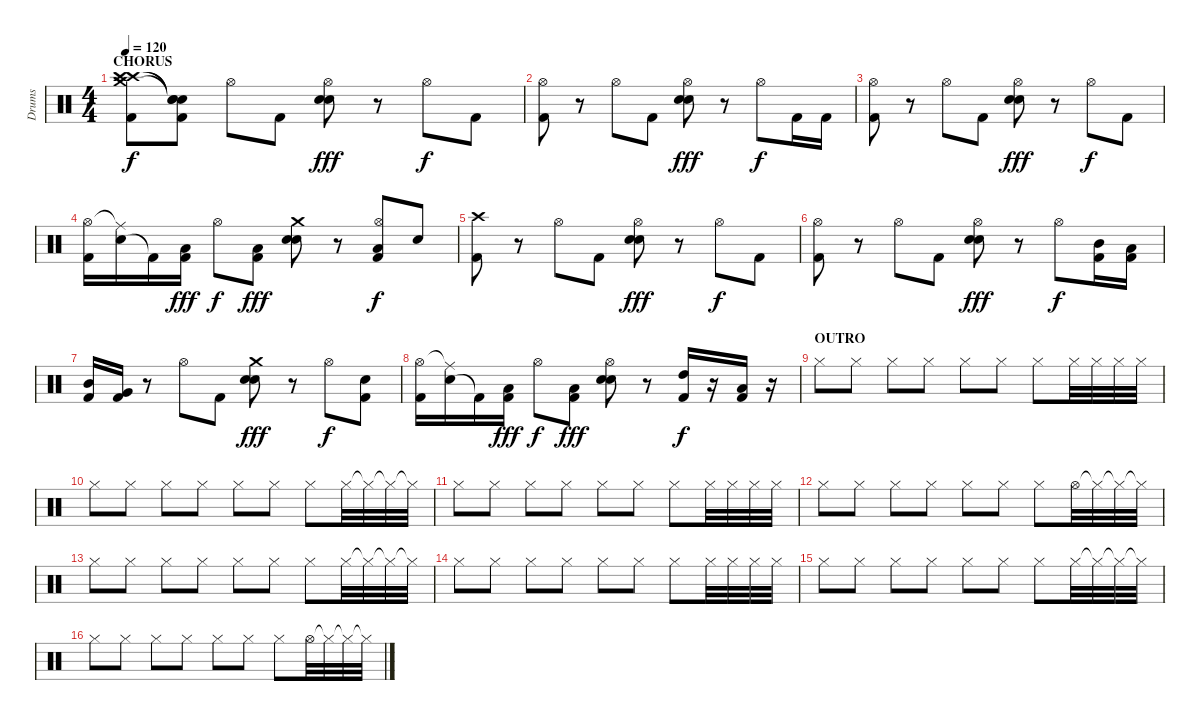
\track ("Drums" "Drums") {instrument percussion}
\staff {score}
\articulation defaults
\ts (4 4)
\section ("" "CHORUS")
\tempo 120
\clef neutral
\ks c
("Crash medium (hit)" "Crash high (hit)" "Kick (hit) 2" "Crash high (hit)").8{dy f} ("Snare (hit)"{t} "Snare (hit)"{t} "Kick (hit) 2" "Snare (hit)"{t}).8 "Hi-Hat (open)".8 "Kick (hit) 2".8 ("Electric Snare (hit)" "Electric Snare (hit)" "Hi-Hat (open)").8{dy fff} r.8 "Hi-Hat (open)".8{dy f} "Kick (hit) 2".8 |
("Kick (hit) 2" "Hi-Hat (open)").8 r.8 "Hi-Hat (open)".8 "Kick (hit) 2".8 ("Electric Snare (hit)" "Electric Snare (hit)" "Hi-Hat (open)").8{dy fff} r.8 "Hi-Hat (open)".8{dy f} "Kick (hit) 2".16 "Kick (hit) 2".16 |
("Kick (hit) 2" "Hi-Hat (open)").8 r.8 "Hi-Hat (open)".8 "Kick (hit) 2".8 ("Electric Snare (hit)" "Electric Snare (hit)" "Hi-Hat (open)").8{dy fff} r.8 "Hi-Hat (open)".8{dy f} "Kick (hit) 2".8 |
("Kick (hit) 2" "Hi-Hat (open)").16 ("Electric Snare (hit)" "Ride (middle)"{t}).16 "Kick (hit) 2"{t}.16 ("Low Floor Tom (hit)" "Kick (hit) 2").16{dy fff} "Hi-Hat (open)".8{dy f} ("Low Floor Tom (hit)" "Kick (hit) 2").8{dy fff} ("Electric Snare (hit)" "Electric Snare (hit)" "Crash medium (hit)").8 r.8 ("Low Floor Tom (hit)" "Kick (hit) 2" "Hi-Hat (open)").8{dy f} "Electric Snare (hit)".8 |
("Kick (hit) 2" "Crash high (hit)").8 r.8 "Hi-Hat (open)".8 "Kick (hit) 2".8 ("Electric Snare (hit)" "Electric Snare (hit)" "Hi-Hat (open)").8{dy fff} r.8 "Hi-Hat (open)".8{dy f} "Kick (hit) 2".8 |
("Kick (hit) 2" "Hi-Hat (open)").8 r.8 "Hi-Hat (open)".8 "Kick (hit) 2".8 ("Electric Snare (hit)" "Electric Snare (hit)" "Hi-Hat (open)").8{dy fff} r.8 "Hi-Hat (open)".8{dy f} ("Mid Tom (hit)" "Kick (hit) 2").16 ("Low Tom (hit)" "Kick (hit) 2").16 |
("Mid Tom (hit)" "Kick (hit) 2").16 ("Very Low Tom (hit)" "Kick (hit) 2").16 r.8 "Hi-Hat (open)".8 "Kick (hit) 2".8 ("Electric Snare (hit)" "Electric Snare (hit)" "Crash medium (hit)").8{dy fff} r.8 "Hi-Hat (open)".8{dy f} ("Electric Snare (hit)" "Kick (hit) 2").8 |
("Kick (hit) 2" "Hi-Hat (open)").16 ("Electric Snare (hit)" "Ride (middle)"{t}).16 "Kick (hit) 2"{t}.16 ("Low Floor Tom (hit)" "Kick (hit) 2").16{dy fff} "Hi-Hat (open)".8{dy f} ("Low Floor Tom (hit)" "Kick (hit) 2").8{dy fff} ("Electric Snare (hit)" "Electric Snare (hit)" "Hi-Hat (open)").8 r.8 ("High Tom (hit)" "Kick (hit) 2").16{dy f} r.16 ("Low Tom (hit)" "Kick (hit) 2").16 r.16 |
\section ("" "OUTRO")
"Hi-Hat (closed)".8 "Hi-Hat (closed)".8 "Hi-Hat (closed)".8 "Hi-Hat (closed)".8 "Hi-Hat (closed)".8 "Hi-Hat (closed)".8 "Hi-Hat (closed)".8 "Hi-Hat (closed)".32 "Hi-Hat (closed)".32 "Hi-Hat (closed)".32 "Hi-Hat (closed)".32 |
"Hi-Hat (closed)".8 "Hi-Hat (closed)".8 "Hi-Hat (closed)".8 "Hi-Hat (closed)".8 "Hi-Hat (closed)".8 "Hi-Hat (closed)".8 "Hi-Hat (closed)".8 "Hi-Hat (closed)".32 "Hi-Hat (closed)"{t}.32 "Hi-Hat (closed)"{t}.32 "Hi-Hat (closed)"{t}.32 |
"Hi-Hat (closed)".8 "Hi-Hat (closed)".8 "Hi-Hat (closed)".8 "Hi-Hat (closed)".8 "Hi-Hat (closed)".8 "Hi-Hat (closed)".8 "Hi-Hat (closed)".8 "Hi-Hat (closed)".32 "Hi-Hat (closed)".32 "Hi-Hat (closed)".32 "Hi-Hat (closed)".32 |
"Hi-Hat (closed)".8 "Hi-Hat (closed)".8 "Hi-Hat (closed)".8 "Hi-Hat (closed)".8 "Hi-Hat (closed)".8 "Hi-Hat (closed)".8 "Hi-Hat (closed)".8 "Hi-Hat (open)".32 "Hi-Hat (closed)"{t}.32 "Hi-Hat (closed)"{t}.32 "Hi-Hat (closed)"{t}.32 |
"Hi-Hat (closed)".8 "Hi-Hat (closed)".8 "Hi-Hat (closed)".8 "Hi-Hat (closed)".8 "Hi-Hat (closed)".8 "Hi-Hat (closed)".8 "Hi-Hat (closed)".8 "Hi-Hat (closed)".32 "Hi-Hat (closed)"{t}.32 "Hi-Hat (closed)"{t}.32 "Hi-Hat (closed)"{t}.32 |
"Hi-Hat (closed)".8 "Hi-Hat (closed)".8 "Hi-Hat (closed)".8 "Hi-Hat (closed)".8 "Hi-Hat (closed)".8 "Hi-Hat (closed)".8 "Hi-Hat (closed)".8 "Hi-Hat (closed)".32 "Hi-Hat (closed)".32 "Hi-Hat (closed)".32 "Hi-Hat (closed)".32 |
"Hi-Hat (closed)".8 "Hi-Hat (closed)".8 "Hi-Hat (closed)".8 "Hi-Hat (closed)".8 "Hi-Hat (closed)".8 "Hi-Hat (closed)".8 "Hi-Hat (closed)".8 "Hi-Hat (closed)".32 "Hi-Hat (closed)"{t}.32 "Hi-Hat (closed)"{t}.32 "Hi-Hat (closed)"{t}.32 |
"Hi-Hat (closed)".8 "Hi-Hat (closed)".8 "Hi-Hat (closed)".8 "Hi-Hat (closed)".8 "Hi-Hat (closed)".8 "Hi-Hat (closed)".8 "Hi-Hat (closed)".8 "Hi-Hat (open)".32 "Hi-Hat (closed)"{t}.32 "Hi-Hat (closed)"{t}.32 "Hi-Hat (closed)"{t}.32
